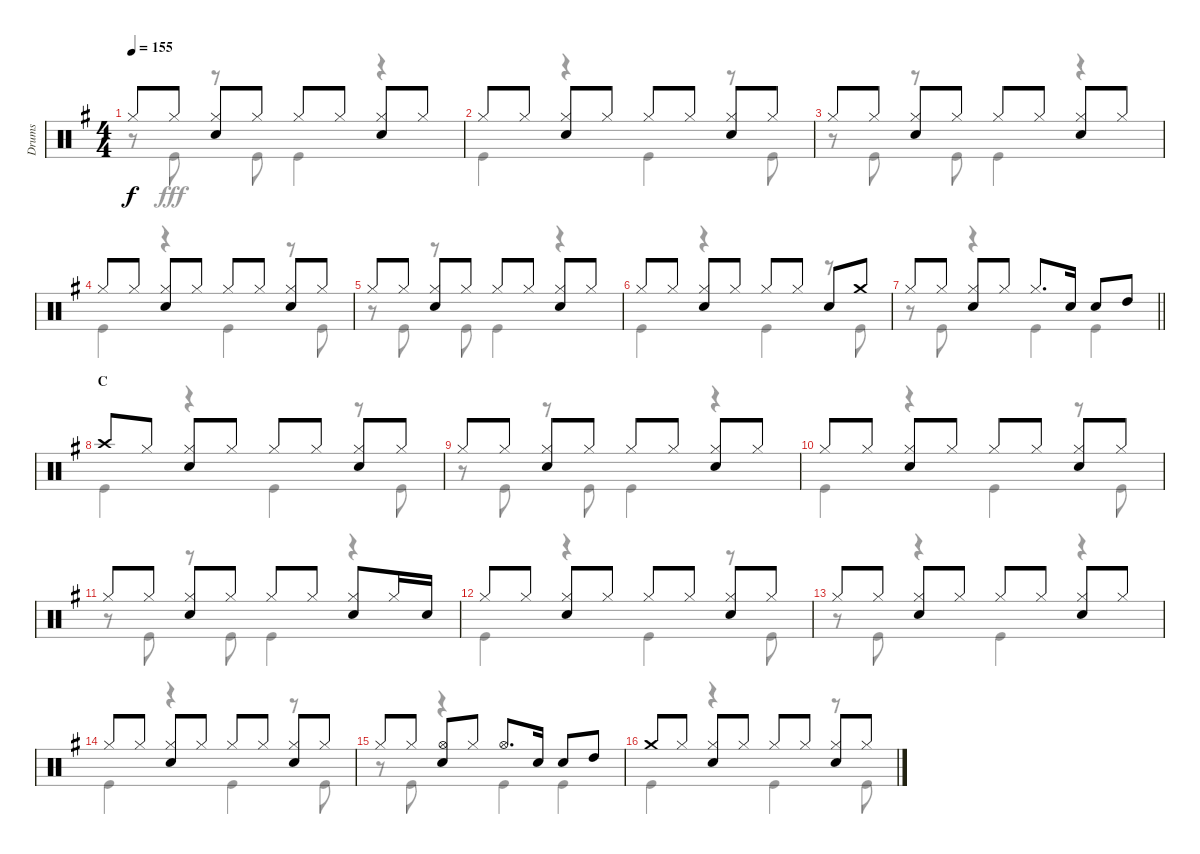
\track ("Drums" "Drums") {instrument percussion}
\staff {score}
\articulation defaults
\voice
\ts (4 4)
\tempo 155
\clef neutral
\ks g "Hi-Hat (closed)".8{dy f} "Hi-Hat (closed)".8
("Hi-Hat (closed)" "Snare (hit) 2").8 "Hi-Hat (closed)".8 "Hi-Hat (closed)".8 "Hi-Hat (closed)".8 ("Hi-Hat (closed)" "Snare (hit) 2").8 "Hi-Hat (closed)".8 |
"Hi-Hat (closed)".8 "Hi-Hat (closed)".8 ("Hi-Hat (closed)" "Snare (hit) 2").8 "Hi-Hat (closed)".8 "Hi-Hat (closed)".8 "Hi-Hat (closed)".8 ("Hi-Hat (closed)" "Snare (hit) 2").8 "Hi-Hat (closed)".8 |
"Hi-Hat (closed)".8 "Hi-Hat (closed)".8 ("Hi-Hat (closed)" "Snare (hit) 2").8 "Hi-Hat (closed)".8 "Hi-Hat (closed)".8 "Hi-Hat (closed)".8 ("Hi-Hat (closed)" "Snare (hit) 2").8 "Hi-Hat (closed)".8 |
"Hi-Hat (closed)".8 "Hi-Hat (closed)".8 ("Hi-Hat (closed)" "Snare (hit) 2").8 "Hi-Hat (closed)".8 "Hi-Hat (closed)".8 "Hi-Hat (closed)".8 ("Hi-Hat (closed)" "Snare (hit) 2").8 "Hi-Hat (closed)".8 |
"Hi-Hat (closed)".8 "Hi-Hat (closed)".8 ("Hi-Hat (closed)" "Snare (hit) 2").8 "Hi-Hat (closed)".8 "Hi-Hat (closed)".8 "Hi-Hat (closed)".8 ("Hi-Hat (closed)" "Snare (hit) 2").8 "Hi-Hat (closed)".8 |
"Hi-Hat (closed)".8 "Hi-Hat (closed)".8 ("Hi-Hat (closed)" "Snare (hit) 2").8 "Hi-Hat (closed)".8 "Hi-Hat (closed)".8 "Hi-Hat (closed)".8 "Snare (hit) 2".8 "Crash medium (hit)".8 |
\barLineRight lightlight "Hi-Hat (closed)".8 "Hi-Hat (closed)".8
("Hi-Hat (closed)" "Snare (hit) 2").8 "Hi-Hat (closed)".8 "Hi-Hat (closed)".8{d} "Snare (hit) 2".16 "Snare (hit) 2".8 "High Tom (hit)".8 |
\section ("" "C")
"Crash high (hit)".8 "Hi-Hat (closed)".8 ("Hi-Hat (closed)" "Snare (hit) 2").8 "Hi-Hat (closed)".8 "Hi-Hat (closed)".8 "Hi-Hat (closed)".8 ("Hi-Hat (closed)" "Snare (hit) 2").8 "Hi-Hat (closed)".8 |
"Hi-Hat (closed)".8 "Hi-Hat (closed)".8 ("Hi-Hat (closed)" "Snare (hit) 2").8 "Hi-Hat (closed)".8 "Hi-Hat (closed)".8 "Hi-Hat (closed)".8 ("Hi-Hat (closed)" "Snare (hit) 2").8 "Hi-Hat (closed)".8 |
"Hi-Hat (closed)".8 "Hi-Hat (closed)".8 ("Hi-Hat (closed)" "Snare (hit) 2").8 "Hi-Hat (closed)".8 "Hi-Hat (closed)".8 "Hi-Hat (closed)".8 ("Hi-Hat (closed)" "Snare (hit) 2").8 "Hi-Hat (closed)".8 |
"Hi-Hat (closed)".8 "Hi-Hat (closed)".8 ("Hi-Hat (closed)" "Snare (hit) 2").8 "Hi-Hat (closed)".8 "Hi-Hat (closed)".8 "Hi-Hat (closed)".8 ("Hi-Hat (closed)" "Snare (hit) 2").8 "Hi-Hat (closed)".16 "Snare (hit) 2".16 |
"Hi-Hat (closed)".8 "Hi-Hat (closed)".8 ("Hi-Hat (closed)" "Snare (hit) 2").8 "Hi-Hat (closed)".8 "Hi-Hat (closed)".8 "Hi-Hat (closed)".8 ("Hi-Hat (closed)" "Snare (hit) 2").8 "Hi-Hat (closed)".8 |
"Hi-Hat (closed)".8 "Hi-Hat (closed)".8 ("Hi-Hat (closed)" "Snare (hit) 2").8 "Hi-Hat (closed)".8 "Hi-Hat (closed)".8 "Hi-Hat (closed)".8 ("Hi-Hat (closed)" "Snare (hit) 2").8 "Hi-Hat (closed)".8 |
"Hi-Hat (closed)".8 "Hi-Hat (closed)".8 ("Hi-Hat (closed)" "Snare (hit) 2").8 "Hi-Hat (closed)".8 "Hi-Hat (closed)".8 "Hi-Hat (closed)".8 ("Hi-Hat (closed)" "Snare (hit) 2").8 "Hi-Hat (closed)".8 |
"Hi-Hat (closed)".8 "Hi-Hat (closed)".8 ("Hi-Hat (open)" "Snare (hit) 2").8 "Hi-Hat (closed)".8 "Hi-Hat (open)".8{d} "Snare (hit) 2".16 "Snare (hit) 2".8 "High Tom (hit)".8 |
"Crash medium (hit)".8 "Hi-Hat (closed)".8 ("Hi-Hat (closed)" "Snare (hit) 2").8 "Hi-Hat (closed)".8 "Hi-Hat (closed)".8 "Hi-Hat (closed)".8 ("Hi-Hat (closed)" "Snare (hit) 2").8 "Hi-Hat (closed)".8
\voice
\clef neutral
\ottava regular
\simile none
\ks g
r.8{dy fff} "Kick (hit)".8 r.8 "Kick (hit)".8 "Kick (hit)".4 r.4 |
"Kick (hit)".4 r.4 "Kick (hit)".4 r.8 "Kick (hit)".8 |
r.8 "Kick (hit)".8 r.8 "Kick (hit)".8 "Kick (hit)".4 r.4 |
"Kick (hit)".4 r.4 "Kick (hit)".4 r.8 "Kick (hit)".8 |
r.8 "Kick (hit)".8 r.8 "Kick (hit)".8 "Kick (hit)".4 r.4 |
"Kick (hit)".4 r.4 "Kick (hit)".4 r.8 "Kick (hit)".8 |
\barLineRight lightlight
r.8 "Kick (hit)".8 r.4 "Kick (hit)".4 "Kick (hit)".4 |
"Kick (hit)".4 r.4 "Kick (hit)".4 r.8 "Kick (hit)".8 |
r.8 "Kick (hit)".8 r.8 "Kick (hit)".8 "Kick (hit)".4 r.4 |
"Kick (hit)".4 r.4 "Kick (hit)".4 r.8 "Kick (hit)".8 |
r.8 "Kick (hit)".8 r.8 "Kick (hit)".8 "Kick (hit)".4 r.4 |
"Kick (hit)".4 r.4 "Kick (hit)".4 r.8 "Kick (hit)".8 |
r.8 "Kick (hit)".8 r.4 "Kick (hit)".4 r.4 |
"Kick (hit)".4 r.4 "Kick (hit)".4 r.8 "Kick (hit)".8 |
r.8 "Kick (hit)".8 r.4 "Kick (hit)".4 "Kick (hit)".4 |
"Kick (hit)".4 r.4 "Kick (hit)".4 r.8 "Kick (hit)".8
